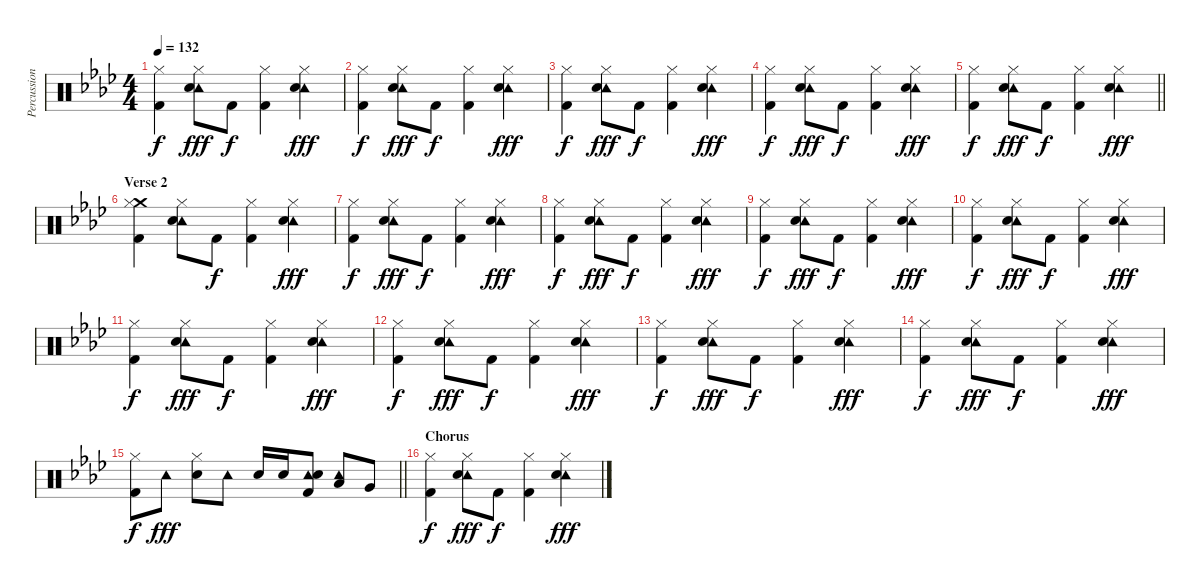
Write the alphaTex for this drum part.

\track ("Percussion - Nigel Olsen/Ray Cooper" "Percussion") {instrument percussion}
\staff {score}
\articulation defaults
\ts (4 4)
\tempo 132
\clef neutral
\ks ab
("Hi-Hat (closed)" "Kick (hit) 2").4{dy f} ("Tambourine (hit)" "Hi-Hat (closed)" "Snare (hit) 2").8{dy fff} "Kick (hit) 2".8{dy f} ("Hi-Hat (closed)" "Kick (hit) 2").4 ("Tambourine (hit)" "Hi-Hat (closed)" "Snare (hit) 2").4{dy fff} |
("Hi-Hat (closed)" "Kick (hit) 2").4{dy f} ("Tambourine (hit)" "Hi-Hat (closed)" "Snare (hit) 2").8{dy fff} "Kick (hit) 2".8{dy f} ("Hi-Hat (closed)" "Kick (hit) 2").4 ("Tambourine (hit)" "Hi-Hat (closed)" "Snare (hit) 2").4{dy fff} |
("Hi-Hat (closed)" "Kick (hit) 2").4{dy f} ("Tambourine (hit)" "Hi-Hat (closed)" "Snare (hit) 2").8{dy fff} "Kick (hit) 2".8{dy f} ("Hi-Hat (closed)" "Kick (hit) 2").4 ("Tambourine (hit)" "Hi-Hat (closed)" "Snare (hit) 2").4{dy fff} |
("Hi-Hat (closed)" "Kick (hit) 2").4{dy f} ("Tambourine (hit)" "Hi-Hat (closed)" "Snare (hit) 2").8{dy fff} "Kick (hit) 2".8{dy f} ("Hi-Hat (closed)" "Kick (hit) 2").4 ("Tambourine (hit)" "Hi-Hat (closed)" "Snare (hit) 2").4{dy fff} |
\barLineRight lightlight
("Hi-Hat (closed)" "Kick (hit) 2").4{dy f} ("Tambourine (hit)" "Hi-Hat (closed)" "Snare (hit) 2").8{dy fff} "Kick (hit) 2".8{dy f} ("Hi-Hat (closed)" "Kick (hit) 2").4 ("Tambourine (hit)" "Hi-Hat (closed)" "Snare (hit) 2").4{dy fff} |
\section ("" "Verse 2")
("Crash medium (hit)" "Hi-Hat (closed)" "Kick (hit) 2").4 ("Tambourine (hit)" "Hi-Hat (closed)" "Snare (hit) 2").8 "Kick (hit) 2".8{dy f} ("Hi-Hat (closed)" "Kick (hit) 2").4 ("Tambourine (hit)" "Hi-Hat (closed)" "Snare (hit) 2").4{dy fff} |
("Hi-Hat (closed)" "Kick (hit) 2").4{dy f} ("Tambourine (hit)" "Hi-Hat (closed)" "Snare (hit) 2").8{dy fff} "Kick (hit) 2".8{dy f} ("Hi-Hat (closed)" "Kick (hit) 2").4 ("Tambourine (hit)" "Hi-Hat (closed)" "Snare (hit) 2").4{dy fff} |
("Hi-Hat (closed)" "Kick (hit) 2").4{dy f} ("Tambourine (hit)" "Hi-Hat (closed)" "Snare (hit) 2").8{dy fff} "Kick (hit) 2".8{dy f} ("Hi-Hat (closed)" "Kick (hit) 2").4 ("Tambourine (hit)" "Hi-Hat (closed)" "Snare (hit) 2").4{dy fff} |
("Hi-Hat (closed)" "Kick (hit) 2").4{dy f} ("Tambourine (hit)" "Hi-Hat (closed)" "Snare (hit) 2").8{dy fff} "Kick (hit) 2".8{dy f} ("Hi-Hat (closed)" "Kick (hit) 2").4 ("Tambourine (hit)" "Hi-Hat (closed)" "Snare (hit) 2").4{dy fff} |
("Hi-Hat (closed)" "Kick (hit) 2").4{dy f} ("Tambourine (hit)" "Hi-Hat (closed)" "Snare (hit) 2").8{dy fff} "Kick (hit) 2".8{dy f} ("Hi-Hat (closed)" "Kick (hit) 2").4 ("Tambourine (hit)" "Hi-Hat (closed)" "Snare (hit) 2").4{dy fff} |
("Hi-Hat (closed)" "Kick (hit) 2").4{dy f} ("Tambourine (hit)" "Hi-Hat (closed)" "Snare (hit) 2").8{dy fff} "Kick (hit) 2".8{dy f} ("Hi-Hat (closed)" "Kick (hit) 2").4 ("Tambourine (hit)" "Hi-Hat (closed)" "Snare (hit) 2").4{dy fff} |
("Hi-Hat (closed)" "Kick (hit) 2").4{dy f} ("Tambourine (hit)" "Hi-Hat (closed)" "Snare (hit) 2").8{dy fff} "Kick (hit) 2".8{dy f} ("Hi-Hat (closed)" "Kick (hit) 2").4 ("Tambourine (hit)" "Hi-Hat (closed)" "Snare (hit) 2").4{dy fff} |
("Hi-Hat (closed)" "Kick (hit) 2").4{dy f} ("Tambourine (hit)" "Hi-Hat (closed)" "Snare (hit) 2").8{dy fff} "Kick (hit) 2".8{dy f} ("Hi-Hat (closed)" "Kick (hit) 2").4 ("Tambourine (hit)" "Hi-Hat (closed)" "Snare (hit) 2").4{dy fff} |
("Hi-Hat (closed)" "Kick (hit) 2").4{dy f} ("Tambourine (hit)" "Hi-Hat (closed)" "Snare (hit) 2").8{dy fff} "Kick (hit) 2".8{dy f} ("Hi-Hat (closed)" "Kick (hit) 2").4 ("Tambourine (hit)" "Hi-Hat (closed)" "Snare (hit) 2").4{dy fff} |
\barLineRight lightlight
("Hi-Hat (closed)" "Kick (hit) 2").8{dy f} "Tambourine (hit)".8{dy fff} ("Hi-Hat (closed)" "Snare (hit) 2").8 "Tambourine (hit)".8 "Snare (hit) 2".16 "Snare (hit) 2".16 ("Tambourine (hit)" "Snare (hit) 2" "Kick (hit) 2").8 ("Tambourine (hit)" "Low Tom (hit)").8 "Very Low Tom (hit)".8 |
\section ("" "Chorus")
("Hi-Hat (closed)" "Kick (hit) 2").4{dy f} ("Tambourine (hit)" "Hi-Hat (closed)" "Snare (hit) 2").8{dy fff} "Kick (hit) 2".8{dy f} ("Hi-Hat (closed)" "Kick (hit) 2").4 ("Tambourine (hit)" "Hi-Hat (closed)" "Snare (hit) 2").4{dy fff}
